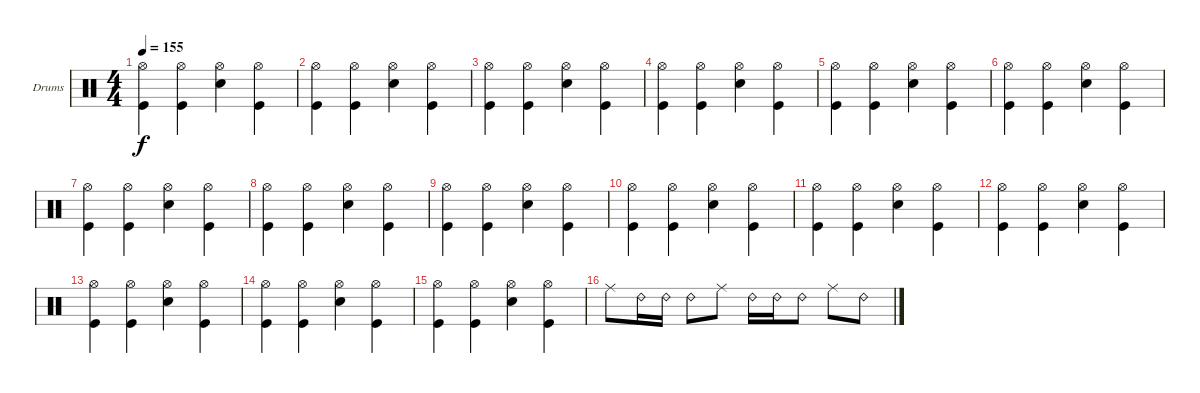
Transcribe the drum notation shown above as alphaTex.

\defaultSystemsLayout 4
\bracketExtendMode groupsimilarinstruments
\firstSystemTrackNameOrientation horizontal
\otherSystemsTrackNameOrientation horizontal
\track ("Drumkit" "Drums") {instrument percussion}
\staff {score}
\articulation defaults
\ts (4 4)
\tempo 155
\clef neutral
\ks c
("Kick (hit)" "Hi-Hat (open)").4{dy f} ("Kick (hit)" "Hi-Hat (open)").4 ("Snare (hit) 2" "Hi-Hat (open)").4 ("Kick (hit)" "Hi-Hat (open)").4 |
("Kick (hit)" "Hi-Hat (open)").4 ("Kick (hit)" "Hi-Hat (open)").4 ("Snare (hit) 2" "Hi-Hat (open)").4 ("Kick (hit)" "Hi-Hat (open)").4 |
("Kick (hit)" "Hi-Hat (open)").4 ("Kick (hit)" "Hi-Hat (open)").4 ("Snare (hit) 2" "Hi-Hat (open)").4 ("Kick (hit)" "Hi-Hat (open)").4 |
("Kick (hit)" "Hi-Hat (open)").4 ("Kick (hit)" "Hi-Hat (open)").4 ("Snare (hit) 2" "Hi-Hat (open)").4 ("Kick (hit)" "Hi-Hat (open)").4 |
("Kick (hit)" "Hi-Hat (open)").4 ("Kick (hit)" "Hi-Hat (open)").4 ("Snare (hit) 2" "Hi-Hat (open)").4 ("Kick (hit)" "Hi-Hat (open)").4 |
("Kick (hit)" "Hi-Hat (open)").4 ("Kick (hit)" "Hi-Hat (open)").4 ("Snare (hit) 2" "Hi-Hat (open)").4 ("Kick (hit)" "Hi-Hat (open)").4 |
("Kick (hit)" "Hi-Hat (open)").4 ("Kick (hit)" "Hi-Hat (open)").4 ("Snare (hit) 2" "Hi-Hat (open)").4 ("Kick (hit)" "Hi-Hat (open)").4 |
("Kick (hit)" "Hi-Hat (open)").4 ("Kick (hit)" "Hi-Hat (open)").4 ("Snare (hit) 2" "Hi-Hat (open)").4 ("Kick (hit)" "Hi-Hat (open)").4 |
("Kick (hit)" "Hi-Hat (open)").4 ("Kick (hit)" "Hi-Hat (open)").4 ("Snare (hit) 2" "Hi-Hat (open)").4 ("Kick (hit)" "Hi-Hat (open)").4 |
("Kick (hit)" "Hi-Hat (open)").4 ("Kick (hit)" "Hi-Hat (open)").4 ("Snare (hit) 2" "Hi-Hat (open)").4 ("Kick (hit)" "Hi-Hat (open)").4 |
("Kick (hit)" "Hi-Hat (open)").4 ("Kick (hit)" "Hi-Hat (open)").4 ("Snare (hit) 2" "Hi-Hat (open)").4 ("Kick (hit)" "Hi-Hat (open)").4 |
("Kick (hit)" "Hi-Hat (open)").4 ("Kick (hit)" "Hi-Hat (open)").4 ("Snare (hit) 2" "Hi-Hat (open)").4 ("Kick (hit)" "Hi-Hat (open)").4 |
("Kick (hit)" "Hi-Hat (open)").4 ("Kick (hit)" "Hi-Hat (open)").4 ("Snare (hit) 2" "Hi-Hat (open)").4 ("Kick (hit)" "Hi-Hat (open)").4 |
("Kick (hit)" "Hi-Hat (open)").4 ("Kick (hit)" "Hi-Hat (open)").4 ("Snare (hit) 2" "Hi-Hat (open)").4 ("Kick (hit)" "Hi-Hat (open)").4 |
("Kick (hit)" "Hi-Hat (open)").4 ("Kick (hit)" "Hi-Hat (open)").4 ("Snare (hit) 2" "Hi-Hat (open)").4 ("Kick (hit)" "Hi-Hat (open)").4 |
"Ride (middle)".8 "Ride (bell) 2".16 "Ride (bell) 2".16 "Ride (bell) 2".8 "Ride (middle)".8 "Ride (bell) 2".16 "Ride (bell) 2".16 "Ride (bell) 2".8 "Ride (middle)".8 "Ride (bell) 2".8
